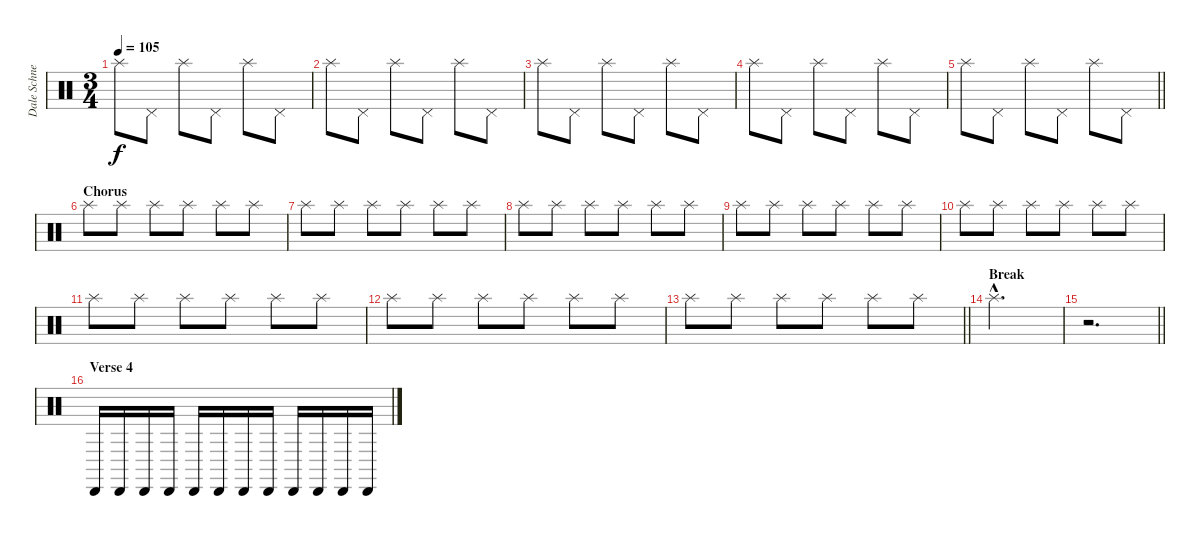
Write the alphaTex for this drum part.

\track ("Dale Schnettler (Drums)" "Dale Schne") {instrument percussion}
\staff {score}
\articulation defaults
\ts (3 4)
\tempo 105
\clef neutral
\ks c "Splash (hit)".8{dy f} "Pedal Hi-Hat (hit)".8 "Splash (hit)".8 "Pedal Hi-Hat (hit)".8 "Splash (hit)".8 "Pedal Hi-Hat (hit)".8
|
"Splash (hit)".8 "Pedal Hi-Hat (hit)".8 "Splash (hit)".8 "Pedal Hi-Hat (hit)".8 "Splash (hit)".8 "Pedal Hi-Hat (hit)".8 |
"Splash (hit)".8 "Pedal Hi-Hat (hit)".8 "Splash (hit)".8 "Pedal Hi-Hat (hit)".8 "Splash (hit)".8 "Pedal Hi-Hat (hit)".8 |
"Splash (hit)".8 "Pedal Hi-Hat (hit)".8 "Splash (hit)".8 "Pedal Hi-Hat (hit)".8 "Splash (hit)".8 "Pedal Hi-Hat (hit)".8 |
\barLineRight lightlight "Splash (hit)".8 "Pedal Hi-Hat (hit)".8 "Splash (hit)".8 "Pedal Hi-Hat (hit)".8 "Splash (hit)".8 "Pedal Hi-Hat (hit)".8
|
\section ("" "Chorus")
"Splash (hit)".8 "Splash (hit)".8 "Splash (hit)".8 "Splash (hit)".8 "Splash (hit)".8 "Splash (hit)".8 |
"Splash (hit)".8 "Splash (hit)".8 "Splash (hit)".8 "Splash (hit)".8 "Splash (hit)".8 "Splash (hit)".8 |
"Splash (hit)".8 "Splash (hit)".8 "Splash (hit)".8 "Splash (hit)".8 "Splash (hit)".8 "Splash (hit)".8 |
"Splash (hit)".8 "Splash (hit)".8 "Splash (hit)".8 "Splash (hit)".8 "Splash (hit)".8 "Splash (hit)".8 |
"Splash (hit)".8 "Splash (hit)".8 "Splash (hit)".8 "Splash (hit)".8 "Splash (hit)".8 "Splash (hit)".8 |
"Splash (hit)".8 "Splash (hit)".8 "Splash (hit)".8 "Splash (hit)".8 "Splash (hit)".8 "Splash (hit)".8 |
"Splash (hit)".8 "Splash (hit)".8 "Splash (hit)".8 "Splash (hit)".8 "Splash (hit)".8 "Splash (hit)".8 |
\barLineRight lightlight "Splash (hit)".8 "Splash (hit)".8 "Splash (hit)".8 "Splash (hit)".8 "Splash (hit)".8 "Splash (hit)".8
|
\section ("" "Break")
"Splash (hit)"{hac}.2{d} |
\barLineRight lightlight
r.2{d} |
\section ("" "Verse 4")
"Cabasa (hit)".16 "Cabasa (hit)".16 "Cabasa (hit)".16 "Cabasa (hit)".16 "Cabasa (hit)".16 "Cabasa (hit)".16 "Cabasa (hit)".16 "Cabasa (hit)".16 "Cabasa (hit)".16 "Cabasa (hit)".16 "Cabasa (hit)".16 "Cabasa (hit)".16
